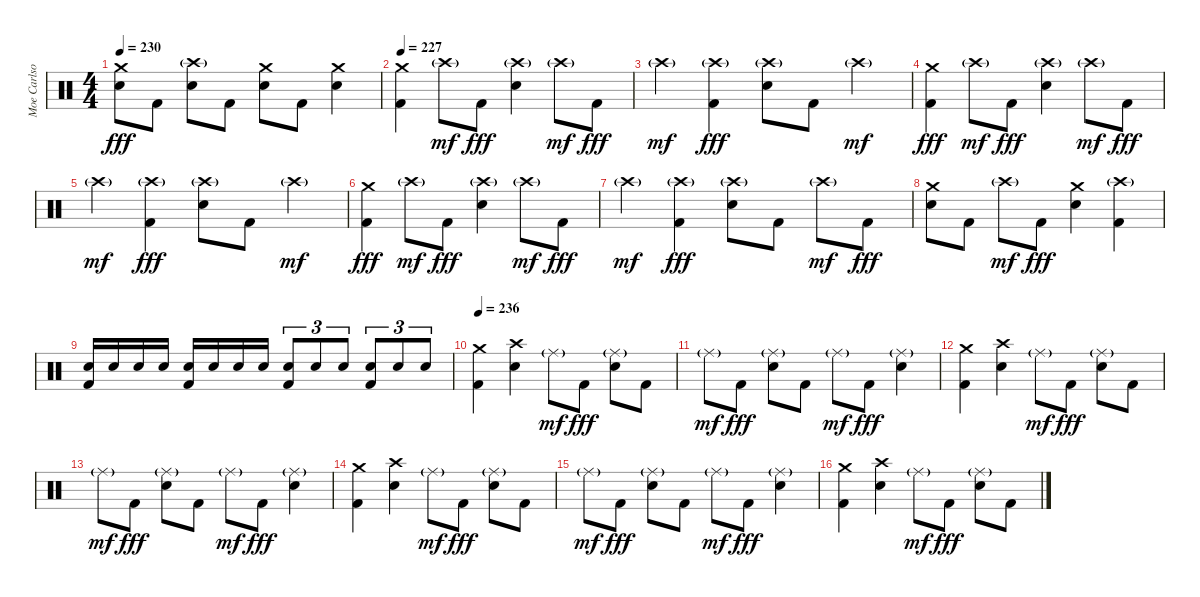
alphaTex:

\track ("Moe Carlson" "Moe Carlso") {instrument percussion}
\staff {score}
\articulation defaults
\ts (4 4)
\tempo 230
\clef neutral
\ks c
("Crash medium (hit)" "Electric Snare (hit)").8{dy fff} "Kick (hit) 2".8 ("Crash high (hit)"{g} "Electric Snare (hit)").8 "Kick (hit) 2".8 ("Crash medium (hit)" "Electric Snare (hit)").8 "Kick (hit) 2".8 ("Crash medium (hit)" "Electric Snare (hit)").4 |
\tempo 227
("Crash medium (hit)" "Kick (hit) 2").4 "Crash high (hit)"{g}.8{dy mf} "Kick (hit) 2".8{dy fff} ("Crash high (hit)"{g} "Electric Snare (hit)").4 "Crash high (hit)"{g}.8{dy mf} "Kick (hit) 2".8{dy fff} |
"Crash high (hit)"{g}.4{dy mf} ("Crash high (hit)"{g} "Kick (hit) 2").4{dy fff} ("Crash high (hit)"{g} "Electric Snare (hit)").8 "Kick (hit) 2".8 "Crash high (hit)"{g}.4{dy mf} |
("Crash medium (hit)" "Kick (hit) 2").4{dy fff} "Crash high (hit)"{g}.8{dy mf} "Kick (hit) 2".8{dy fff} ("Crash high (hit)"{g} "Electric Snare (hit)").4 "Crash high (hit)"{g}.8{dy mf} "Kick (hit) 2".8{dy fff} |
"Crash high (hit)"{g}.4{dy mf} ("Crash high (hit)"{g} "Kick (hit) 2").4{dy fff} ("Crash high (hit)"{g} "Electric Snare (hit)").8 "Kick (hit) 2".8 "Crash high (hit)"{g}.4{dy mf} |
("Crash medium (hit)" "Kick (hit) 2").4{dy fff} "Crash high (hit)"{g}.8{dy mf} "Kick (hit) 2".8{dy fff} ("Crash high (hit)"{g} "Electric Snare (hit)").4 "Crash high (hit)"{g}.8{dy mf} "Kick (hit) 2".8{dy fff} |
"Crash high (hit)"{g}.4{dy mf} ("Crash high (hit)"{g} "Kick (hit) 2").4{dy fff} ("Crash high (hit)"{g} "Electric Snare (hit)").8 "Kick (hit) 2".8 "Crash high (hit)"{g}.8{dy mf} "Kick (hit) 2".8{dy fff} |
("Crash medium (hit)" "Electric Snare (hit)").8 "Kick (hit) 2".8 "Crash high (hit)"{g}.8{dy mf} "Kick (hit) 2".8{dy fff} ("Crash medium (hit)" "Electric Snare (hit)").4 ("Crash high (hit)"{g} "Kick (hit) 2").4 |
("Electric Snare (hit)" "Kick (hit) 2").16 "Electric Snare (hit)".16 "Electric Snare (hit)".16 "Electric Snare (hit)".16 ("Electric Snare (hit)" "Kick (hit) 2").16 "Electric Snare (hit)".16 "Electric Snare (hit)".16 "Electric Snare (hit)".16 ("Electric Snare (hit)" "Kick (hit) 2").8{tu (3 2)} "Electric Snare (hit)".8{tu (3 2)} "Electric Snare (hit)".8{tu (3 2)} ("Electric Snare (hit)" "Kick (hit) 2").8{tu (3 2)} "Electric Snare (hit)".8{tu (3 2)} "Electric Snare (hit)".8{tu (3 2)} |
\tempo 236
("Crash medium (hit)" "Kick (hit) 2").4 ("Crash high (hit)" "Electric Snare (hit)").4 "Ride (middle)"{g}.8{dy mf} "Kick (hit) 2".8{dy fff} ("Ride (middle)"{g} "Electric Snare (hit)").8 "Kick (hit) 2".8 |
"Ride (middle)"{g}.8{dy mf} "Kick (hit) 2".8{dy fff} ("Ride (middle)"{g} "Electric Snare (hit)").8 "Kick (hit) 2".8 "Ride (middle)"{g}.8{dy mf} "Kick (hit) 2".8{dy fff} ("Ride (middle)"{g} "Electric Snare (hit)").4 |
("Crash medium (hit)" "Kick (hit) 2").4 ("Crash high (hit)" "Electric Snare (hit)").4 "Ride (middle)"{g}.8{dy mf} "Kick (hit) 2".8{dy fff} ("Ride (middle)"{g} "Electric Snare (hit)").8 "Kick (hit) 2".8 |
"Ride (middle)"{g}.8{dy mf} "Kick (hit) 2".8{dy fff} ("Ride (middle)"{g} "Electric Snare (hit)").8 "Kick (hit) 2".8 "Ride (middle)"{g}.8{dy mf} "Kick (hit) 2".8{dy fff} ("Ride (middle)"{g} "Electric Snare (hit)").4 |
("Crash medium (hit)" "Kick (hit) 2").4 ("Crash high (hit)" "Electric Snare (hit)").4 "Ride (middle)"{g}.8{dy mf} "Kick (hit) 2".8{dy fff} ("Ride (middle)"{g} "Electric Snare (hit)").8 "Kick (hit) 2".8 |
"Ride (middle)"{g}.8{dy mf} "Kick (hit) 2".8{dy fff} ("Ride (middle)"{g} "Electric Snare (hit)").8 "Kick (hit) 2".8 "Ride (middle)"{g}.8{dy mf} "Kick (hit) 2".8{dy fff} ("Ride (middle)"{g} "Electric Snare (hit)").4 |
("Crash medium (hit)" "Kick (hit) 2").4 ("Crash high (hit)" "Electric Snare (hit)").4 "Ride (middle)"{g}.8{dy mf} "Kick (hit) 2".8{dy fff} ("Ride (middle)"{g} "Electric Snare (hit)").8 "Kick (hit) 2".8
